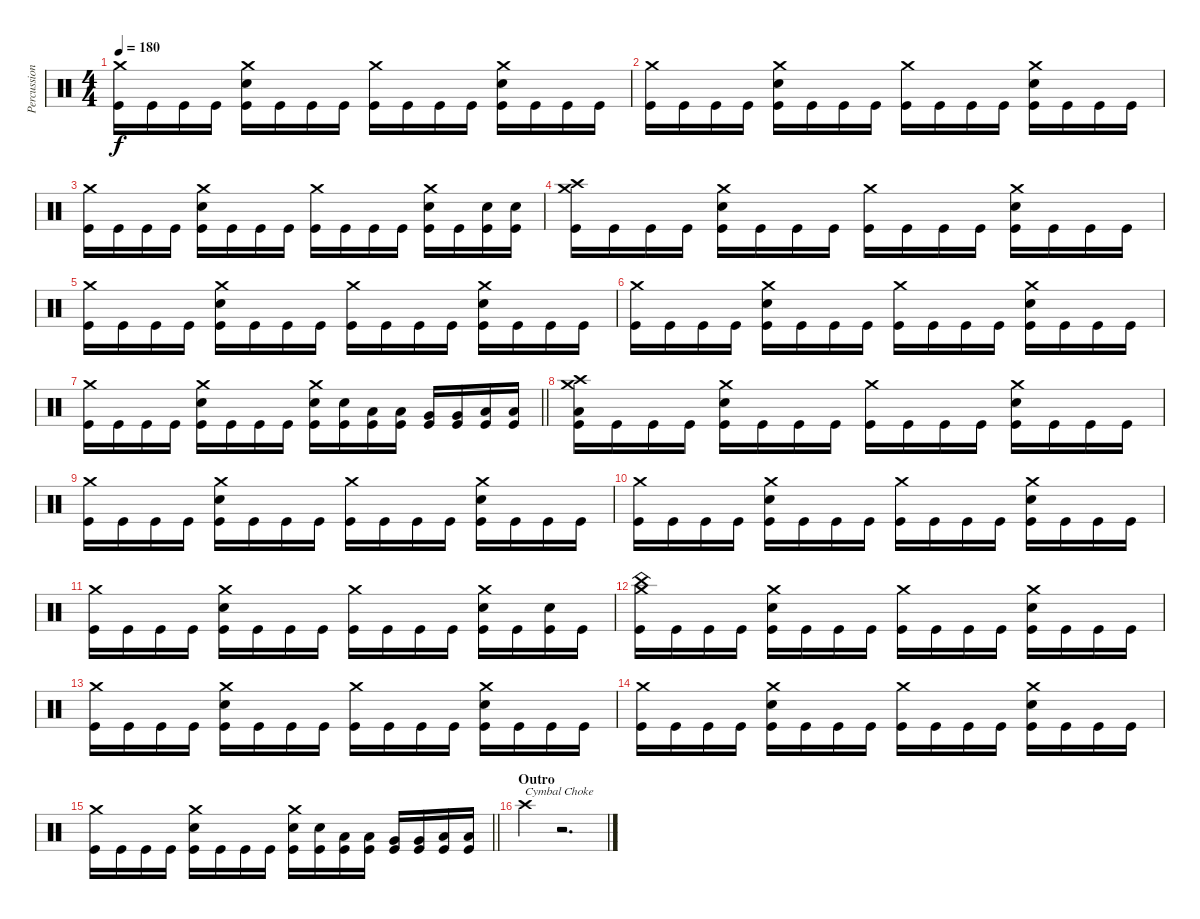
\track ("Percussion" "Percussion") {instrument percussion}
\staff {score}
\articulation defaults
\ts (4 4)
\tempo 180
\clef neutral
\ks c
("Crash medium (hit)" "Kick (hit)").16{dy f} "Kick (hit)".16 "Kick (hit)".16 "Kick (hit)".16 ("Crash medium (hit)" "Electric Snare (hit)" "Kick (hit)").16 "Kick (hit)".16 "Kick (hit)".16 "Kick (hit)".16 ("Crash medium (hit)" "Kick (hit)").16 "Kick (hit)".16 "Kick (hit)".16 "Kick (hit)".16 ("Crash medium (hit)" "Electric Snare (hit)" "Kick (hit)").16 "Kick (hit)".16 "Kick (hit)".16 "Kick (hit)".16 |
("Crash medium (hit)" "Kick (hit)").16 "Kick (hit)".16 "Kick (hit)".16 "Kick (hit)".16 ("Crash medium (hit)" "Electric Snare (hit)" "Kick (hit)").16 "Kick (hit)".16 "Kick (hit)".16 "Kick (hit)".16 ("Crash medium (hit)" "Kick (hit)").16 "Kick (hit)".16 "Kick (hit)".16 "Kick (hit)".16 ("Crash medium (hit)" "Electric Snare (hit)" "Kick (hit)").16 "Kick (hit)".16 "Kick (hit)".16 "Kick (hit)".16 |
("Crash medium (hit)" "Kick (hit)").16 "Kick (hit)".16 "Kick (hit)".16 "Kick (hit)".16 ("Crash medium (hit)" "Electric Snare (hit)" "Kick (hit)").16 "Kick (hit)".16 "Kick (hit)".16 "Kick (hit)".16 ("Crash medium (hit)" "Kick (hit)").16 "Kick (hit)".16 "Kick (hit)".16 "Kick (hit)".16 ("Crash medium (hit)" "Electric Snare (hit)" "Kick (hit)").16 "Kick (hit)".16 ("Electric Snare (hit)" "Kick (hit)").16 ("Electric Snare (hit)" "Kick (hit)").16 |
("Crash medium (hit)" "Crash high (hit)" "Kick (hit)").16 "Kick (hit)".16 "Kick (hit)".16 "Kick (hit)".16 ("Crash medium (hit)" "Electric Snare (hit)" "Kick (hit)").16 "Kick (hit)".16 "Kick (hit)".16 "Kick (hit)".16 ("Crash medium (hit)" "Kick (hit)").16 "Kick (hit)".16 "Kick (hit)".16 "Kick (hit)".16 ("Crash medium (hit)" "Electric Snare (hit)" "Kick (hit)").16 "Kick (hit)".16 "Kick (hit)".16 "Kick (hit)".16 |
("Crash medium (hit)" "Kick (hit)").16 "Kick (hit)".16 "Kick (hit)".16 "Kick (hit)".16 ("Crash medium (hit)" "Electric Snare (hit)" "Kick (hit)").16 "Kick (hit)".16 "Kick (hit)".16 "Kick (hit)".16 ("Crash medium (hit)" "Kick (hit)").16 "Kick (hit)".16 "Kick (hit)".16 "Kick (hit)".16 ("Crash medium (hit)" "Electric Snare (hit)" "Kick (hit)").16 "Kick (hit)".16 "Kick (hit)".16 "Kick (hit)".16 |
("Crash medium (hit)" "Kick (hit)").16 "Kick (hit)".16 "Kick (hit)".16 "Kick (hit)".16 ("Crash medium (hit)" "Electric Snare (hit)" "Kick (hit)").16 "Kick (hit)".16 "Kick (hit)".16 "Kick (hit)".16 ("Crash medium (hit)" "Kick (hit)").16 "Kick (hit)".16 "Kick (hit)".16 "Kick (hit)".16 ("Crash medium (hit)" "Electric Snare (hit)" "Kick (hit)").16 "Kick (hit)".16 "Kick (hit)".16 "Kick (hit)".16 |
\barLineRight lightlight
("Crash medium (hit)" "Kick (hit)").16 "Kick (hit)".16 "Kick (hit)".16 "Kick (hit)".16 ("Crash medium (hit)" "Electric Snare (hit)" "Kick (hit)").16 "Kick (hit)".16 "Kick (hit)".16 "Kick (hit)".16 ("Crash medium (hit)" "Electric Snare (hit)" "Kick (hit)").16 ("Electric Snare (hit)" "Kick (hit)").16 ("Low Tom (hit)" "Kick (hit)").16 ("Low Tom (hit)" "Kick (hit)").16 ("Very Low Tom (hit)" "Kick (hit)").16 ("Very Low Tom (hit)" "Kick (hit)").16 ("Low Floor Tom (hit)" "Kick (hit)").16 ("Low Floor Tom (hit)" "Kick (hit)").16 |
("Crash medium (hit)" "Crash high (hit)" "Low Floor Tom (hit)" "Kick (hit)").16 "Kick (hit)".16 "Kick (hit)".16 "Kick (hit)".16 ("Crash medium (hit)" "Electric Snare (hit)" "Kick (hit)").16 "Kick (hit)".16 "Kick (hit)".16 "Kick (hit)".16 ("Crash medium (hit)" "Kick (hit)").16 "Kick (hit)".16 "Kick (hit)".16 "Kick (hit)".16 ("Crash medium (hit)" "Electric Snare (hit)" "Kick (hit)").16 "Kick (hit)".16 "Kick (hit)".16 "Kick (hit)".16 |
("Crash medium (hit)" "Kick (hit)").16 "Kick (hit)".16 "Kick (hit)".16 "Kick (hit)".16 ("Crash medium (hit)" "Electric Snare (hit)" "Kick (hit)").16 "Kick (hit)".16 "Kick (hit)".16 "Kick (hit)".16 ("Crash medium (hit)" "Kick (hit)").16 "Kick (hit)".16 "Kick (hit)".16 "Kick (hit)".16 ("Crash medium (hit)" "Electric Snare (hit)" "Kick (hit)").16 "Kick (hit)".16 "Kick (hit)".16 "Kick (hit)".16 |
("Crash medium (hit)" "Kick (hit)").16 "Kick (hit)".16 "Kick (hit)".16 "Kick (hit)".16 ("Crash medium (hit)" "Electric Snare (hit)" "Kick (hit)").16 "Kick (hit)".16 "Kick (hit)".16 "Kick (hit)".16 ("Crash medium (hit)" "Kick (hit)").16 "Kick (hit)".16 "Kick (hit)".16 "Kick (hit)".16 ("Crash medium (hit)" "Electric Snare (hit)" "Kick (hit)").16 "Kick (hit)".16 "Kick (hit)".16 "Kick (hit)".16 |
("Crash medium (hit)" "Kick (hit)").16 "Kick (hit)".16 "Kick (hit)".16 "Kick (hit)".16 ("Crash medium (hit)" "Electric Snare (hit)" "Kick (hit)").16 "Kick (hit)".16 "Kick (hit)".16 "Kick (hit)".16 ("Crash medium (hit)" "Kick (hit)").16 "Kick (hit)".16 "Kick (hit)".16 "Kick (hit)".16 ("Crash medium (hit)" "Electric Snare (hit)" "Kick (hit)").16 "Kick (hit)".16 ("Electric Snare (hit)" "Kick (hit)").16 "Kick (hit)".16 |
("Crash medium (hit)" "China (hit)" "Kick (hit)").16 "Kick (hit)".16 "Kick (hit)".16 "Kick (hit)".16 ("Crash medium (hit)" "Electric Snare (hit)" "Kick (hit)").16 "Kick (hit)".16 "Kick (hit)".16 "Kick (hit)".16 ("Crash medium (hit)" "Kick (hit)").16 "Kick (hit)".16 "Kick (hit)".16 "Kick (hit)".16 ("Crash medium (hit)" "Electric Snare (hit)" "Kick (hit)").16 "Kick (hit)".16 "Kick (hit)".16 "Kick (hit)".16 |
("Crash medium (hit)" "Kick (hit)").16 "Kick (hit)".16 "Kick (hit)".16 "Kick (hit)".16 ("Crash medium (hit)" "Electric Snare (hit)" "Kick (hit)").16 "Kick (hit)".16 "Kick (hit)".16 "Kick (hit)".16 ("Crash medium (hit)" "Kick (hit)").16 "Kick (hit)".16 "Kick (hit)".16 "Kick (hit)".16 ("Crash medium (hit)" "Electric Snare (hit)" "Kick (hit)").16 "Kick (hit)".16 "Kick (hit)".16 "Kick (hit)".16 |
("Crash medium (hit)" "Kick (hit)").16 "Kick (hit)".16 "Kick (hit)".16 "Kick (hit)".16 ("Crash medium (hit)" "Electric Snare (hit)" "Kick (hit)").16 "Kick (hit)".16 "Kick (hit)".16 "Kick (hit)".16 ("Crash medium (hit)" "Kick (hit)").16 "Kick (hit)".16 "Kick (hit)".16 "Kick (hit)".16 ("Crash medium (hit)" "Electric Snare (hit)" "Kick (hit)").16 "Kick (hit)".16 "Kick (hit)".16 "Kick (hit)".16 |
\barLineRight lightlight
("Crash medium (hit)" "Kick (hit)").16 "Kick (hit)".16 "Kick (hit)".16 "Kick (hit)".16 ("Crash medium (hit)" "Electric Snare (hit)" "Kick (hit)").16 "Kick (hit)".16 "Kick (hit)".16 "Kick (hit)".16 ("Crash medium (hit)" "Electric Snare (hit)" "Kick (hit)").16 ("Electric Snare (hit)" "Kick (hit)").16 ("Low Tom (hit)" "Kick (hit)").16 ("Low Tom (hit)" "Kick (hit)").16 ("Very Low Tom (hit)" "Kick (hit)").16 ("Very Low Tom (hit)" "Kick (hit)").16 ("Low Floor Tom (hit)" "Kick (hit)").16 ("Low Floor Tom (hit)" "Kick (hit)").16 |
\section ("" "Outro")
"Crash high (hit)".4{txt "Cymbal Choke"} r.2{d volume 0}
